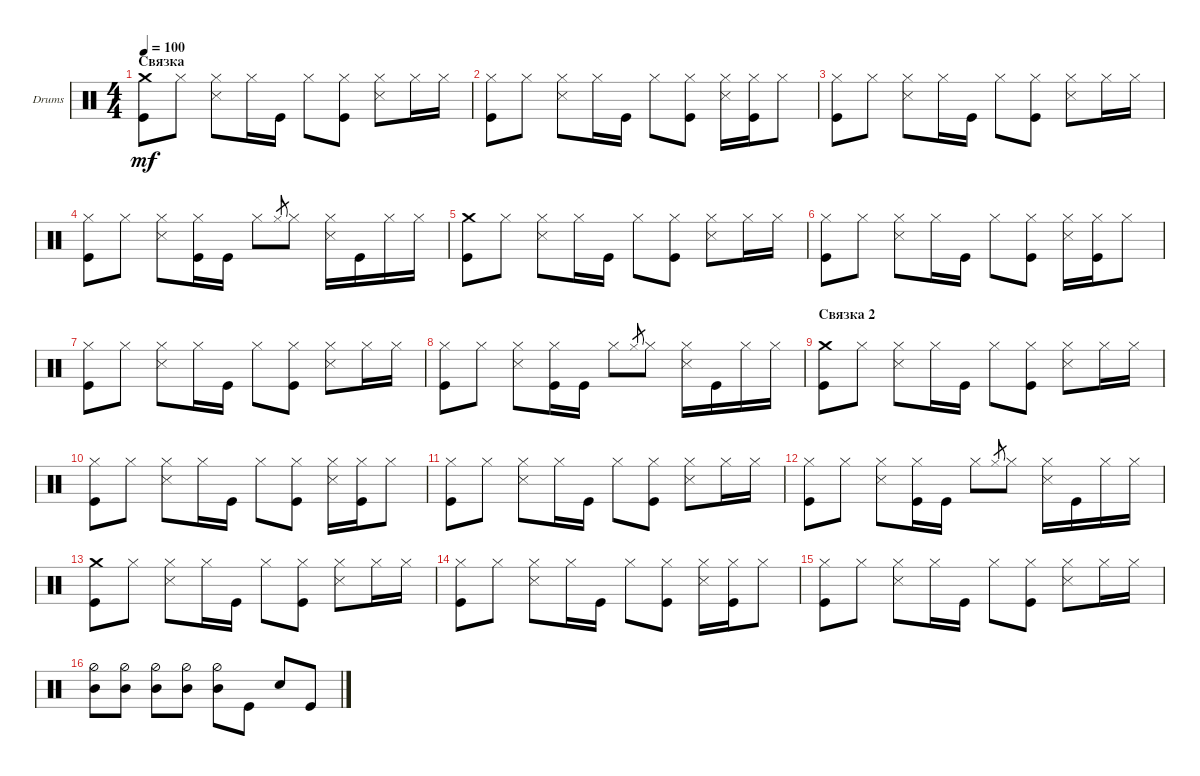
\defaultSystemsLayout 4
\bracketExtendMode groupsimilarinstruments
\firstSystemTrackNameOrientation horizontal
\otherSystemsTrackNameOrientation horizontal
\track ("Drumkit" "Drums") {instrument percussion}
\staff {score}
\articulation defaults
\ts (4 4)
\section ("" "Связка")
\tempo 100
\clef neutral
\ks c
("Crash medium (hit)" "Kick (hit)").8{dy mf} "Hi-Hat (closed)".8 ("Snare (side stick) 3" "Hi-Hat (closed)").8 "Hi-Hat (closed)".16 "Kick (hit)".16 "Hi-Hat (closed)".8 ("Hi-Hat (closed)" "Kick (hit)").8 ("Snare (side stick) 3" "Hi-Hat (closed)").8 "Hi-Hat (closed)".16 "Hi-Hat (closed)".16 |
("Kick (hit)" "Hi-Hat (closed)").8 "Hi-Hat (closed)".8 ("Snare (side stick) 3" "Hi-Hat (closed)").8 "Hi-Hat (closed)".16 "Kick (hit)".16 "Hi-Hat (closed)".8 ("Hi-Hat (closed)" "Kick (hit)").8 ("Snare (side stick) 3" "Hi-Hat (closed)").16 ("Hi-Hat (closed)" "Kick (hit)").16 "Hi-Hat (closed)".8 |
("Kick (hit)" "Hi-Hat (closed)").8 "Hi-Hat (closed)".8 ("Snare (side stick) 3" "Hi-Hat (closed)").8 "Hi-Hat (closed)".16 "Kick (hit)".16 "Hi-Hat (closed)".8 ("Hi-Hat (closed)" "Kick (hit)").8 ("Snare (side stick) 3" "Hi-Hat (closed)").8 "Hi-Hat (closed)".16 "Hi-Hat (closed)".16 |
("Kick (hit)" "Hi-Hat (closed)").8 "Hi-Hat (closed)".8 ("Snare (side stick) 3" "Hi-Hat (closed)").8 ("Hi-Hat (closed)" "Kick (hit)").16 "Kick (hit)".16 "Hi-Hat (closed)".8 "Hi-Hat (closed)".8{gr} "Hi-Hat (closed)".8 ("Hi-Hat (closed)" "Snare (side stick) 3").16 "Kick (hit)".16 "Hi-Hat (closed)".16 "Hi-Hat (closed)".16 |
("Crash medium (hit)" "Kick (hit)").8 "Hi-Hat (closed)".8 ("Snare (side stick) 3" "Hi-Hat (closed)").8 "Hi-Hat (closed)".16 "Kick (hit)".16 "Hi-Hat (closed)".8 ("Hi-Hat (closed)" "Kick (hit)").8 ("Snare (side stick) 3" "Hi-Hat (closed)").8 "Hi-Hat (closed)".16 "Hi-Hat (closed)".16 |
("Kick (hit)" "Hi-Hat (closed)").8 "Hi-Hat (closed)".8 ("Snare (side stick) 3" "Hi-Hat (closed)").8 "Hi-Hat (closed)".16 "Kick (hit)".16 "Hi-Hat (closed)".8 ("Hi-Hat (closed)" "Kick (hit)").8 ("Snare (side stick) 3" "Hi-Hat (closed)").16 ("Hi-Hat (closed)" "Kick (hit)").16 "Hi-Hat (closed)".8 |
("Kick (hit)" "Hi-Hat (closed)").8 "Hi-Hat (closed)".8 ("Snare (side stick) 3" "Hi-Hat (closed)").8 "Hi-Hat (closed)".16 "Kick (hit)".16 "Hi-Hat (closed)".8 ("Hi-Hat (closed)" "Kick (hit)").8 ("Snare (side stick) 3" "Hi-Hat (closed)").8 "Hi-Hat (closed)".16 "Hi-Hat (closed)".16 |
("Kick (hit)" "Hi-Hat (closed)").8 "Hi-Hat (closed)".8 ("Snare (side stick) 3" "Hi-Hat (closed)").8 ("Hi-Hat (closed)" "Kick (hit)").16 "Kick (hit)".16 "Hi-Hat (closed)".8 "Hi-Hat (closed)".8{gr} "Hi-Hat (closed)".8 ("Hi-Hat (closed)" "Snare (side stick) 3").16 "Kick (hit)".16 "Hi-Hat (closed)".16 "Hi-Hat (closed)".16 |
\section ("" "Связка 2")
("Crash medium (hit)" "Kick (hit)").8 "Hi-Hat (closed)".8 ("Snare (side stick) 3" "Hi-Hat (closed)").8 "Hi-Hat (closed)".16 "Kick (hit)".16 "Hi-Hat (closed)".8 ("Hi-Hat (closed)" "Kick (hit)").8 ("Snare (side stick) 3" "Hi-Hat (closed)").8 "Hi-Hat (closed)".16 "Hi-Hat (closed)".16 |
("Kick (hit)" "Hi-Hat (closed)").8 "Hi-Hat (closed)".8 ("Snare (side stick) 3" "Hi-Hat (closed)").8 "Hi-Hat (closed)".16 "Kick (hit)".16 "Hi-Hat (closed)".8 ("Hi-Hat (closed)" "Kick (hit)").8 ("Snare (side stick) 3" "Hi-Hat (closed)").16 ("Hi-Hat (closed)" "Kick (hit)").16 "Hi-Hat (closed)".8 |
("Kick (hit)" "Hi-Hat (closed)").8 "Hi-Hat (closed)".8 ("Snare (side stick) 3" "Hi-Hat (closed)").8 "Hi-Hat (closed)".16 "Kick (hit)".16 "Hi-Hat (closed)".8 ("Hi-Hat (closed)" "Kick (hit)").8 ("Snare (side stick) 3" "Hi-Hat (closed)").8 "Hi-Hat (closed)".16 "Hi-Hat (closed)".16 |
("Kick (hit)" "Hi-Hat (closed)").8 "Hi-Hat (closed)".8 ("Snare (side stick) 3" "Hi-Hat (closed)").8 ("Hi-Hat (closed)" "Kick (hit)").16 "Kick (hit)".16 "Hi-Hat (closed)".8 "Hi-Hat (closed)".8{gr} "Hi-Hat (closed)".8 ("Hi-Hat (closed)" "Snare (side stick) 3").16 "Kick (hit)".16 "Hi-Hat (closed)".16 "Hi-Hat (closed)".16 |
("Crash medium (hit)" "Kick (hit)").8 "Hi-Hat (closed)".8 ("Snare (side stick) 3" "Hi-Hat (closed)").8 "Hi-Hat (closed)".16 "Kick (hit)".16 "Hi-Hat (closed)".8 ("Hi-Hat (closed)" "Kick (hit)").8 ("Snare (side stick) 3" "Hi-Hat (closed)").8 "Hi-Hat (closed)".16 "Hi-Hat (closed)".16 |
("Kick (hit)" "Hi-Hat (closed)").8 "Hi-Hat (closed)".8 ("Snare (side stick) 3" "Hi-Hat (closed)").8 "Hi-Hat (closed)".16 "Kick (hit)".16 "Hi-Hat (closed)".8 ("Hi-Hat (closed)" "Kick (hit)").8 ("Snare (side stick) 3" "Hi-Hat (closed)").16 ("Hi-Hat (closed)" "Kick (hit)").16 "Hi-Hat (closed)".8 |
("Kick (hit)" "Hi-Hat (closed)").8 "Hi-Hat (closed)".8 ("Snare (side stick) 3" "Hi-Hat (closed)").8 "Hi-Hat (closed)".16 "Kick (hit)".16 "Hi-Hat (closed)".8 ("Hi-Hat (closed)" "Kick (hit)").8 ("Snare (side stick) 3" "Hi-Hat (closed)").8 "Hi-Hat (closed)".16 "Hi-Hat (closed)".16 |
("Hi-Hat (half)" "Mid Tom (hit)").8 ("Hi-Hat (half)" "Mid Tom (hit)").8 ("Hi-Hat (half)" "Mid Tom (hit)").8 ("Hi-Hat (half)" "Mid Tom (hit)").8 ("Hi-Hat (half)" "Mid Tom (hit)").8 "Kick (hit)".8 "Snare (hit) 2".8 "Kick (hit)".8
